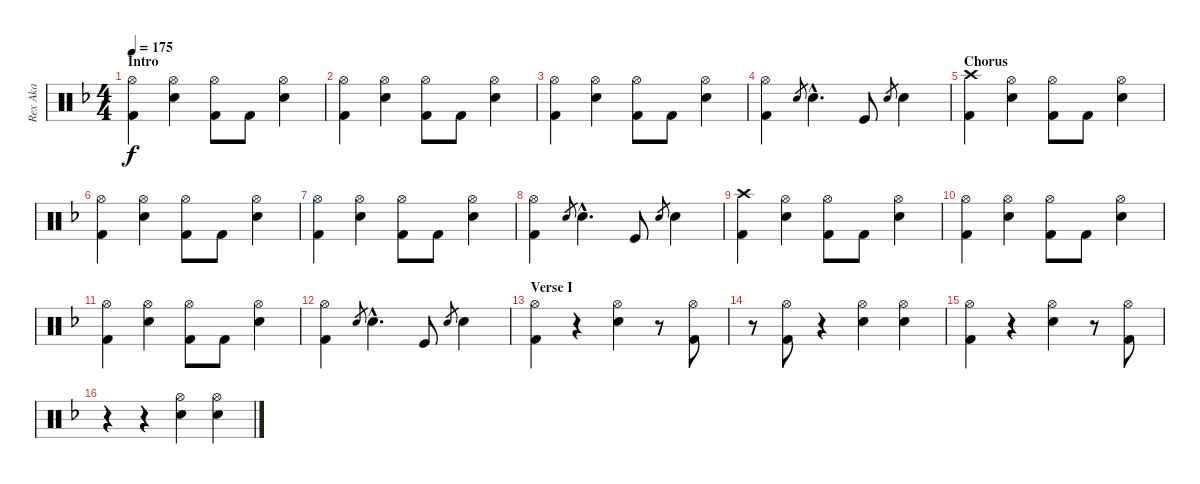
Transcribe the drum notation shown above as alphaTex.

\track ("Rex Aka" "Rex Aka") {instrument percussion}
\staff {score}
\articulation defaults
\ts (4 4)
\section ("" "Intro")
\tempo 175
\clef neutral
\ks f
("Hi-Hat (open)" "Kick (hit) 2").4{dy f} ("Hi-Hat (open)" "Electric Snare (hit)").4 ("Hi-Hat (open)" "Kick (hit) 2").8 "Kick (hit) 2".8 ("Hi-Hat (open)" "Electric Snare (hit)").4 |
("Hi-Hat (open)" "Kick (hit) 2").4 ("Hi-Hat (open)" "Electric Snare (hit)").4 ("Hi-Hat (open)" "Kick (hit) 2").8 "Kick (hit) 2".8 ("Hi-Hat (open)" "Electric Snare (hit)").4 |
("Hi-Hat (open)" "Kick (hit) 2").4 ("Hi-Hat (open)" "Electric Snare (hit)").4 ("Hi-Hat (open)" "Kick (hit) 2").8 "Kick (hit) 2".8 ("Hi-Hat (open)" "Electric Snare (hit)").4 |
("Hi-Hat (open)" "Kick (hit) 2").4 "Electric Snare (hit)".8{gr} "Electric Snare (hit)"{hac}.4{d} "Kick (hit)".8 "Electric Snare (hit)".8{gr} "Electric Snare (hit)".4 |
\section ("" "Chorus")
("Crash high (hit)" "Kick (hit) 2").4 ("Hi-Hat (open)" "Electric Snare (hit)").4 ("Hi-Hat (open)" "Kick (hit) 2").8 "Kick (hit) 2".8 ("Hi-Hat (open)" "Electric Snare (hit)").4 |
("Hi-Hat (open)" "Kick (hit) 2").4 ("Hi-Hat (open)" "Electric Snare (hit)").4 ("Hi-Hat (open)" "Kick (hit) 2").8 "Kick (hit) 2".8 ("Hi-Hat (open)" "Electric Snare (hit)").4 |
("Hi-Hat (open)" "Kick (hit) 2").4 ("Hi-Hat (open)" "Electric Snare (hit)").4 ("Hi-Hat (open)" "Kick (hit) 2").8 "Kick (hit) 2".8 ("Hi-Hat (open)" "Electric Snare (hit)").4 |
("Hi-Hat (open)" "Kick (hit) 2").4 "Electric Snare (hit)".8{gr} "Electric Snare (hit)"{hac}.4{d} "Kick (hit)".8 "Electric Snare (hit)".8{gr} "Electric Snare (hit)".4 |
("Crash high (hit)" "Kick (hit) 2").4 ("Hi-Hat (open)" "Electric Snare (hit)").4 ("Hi-Hat (open)" "Kick (hit) 2").8 "Kick (hit) 2".8 ("Hi-Hat (open)" "Electric Snare (hit)").4 |
("Hi-Hat (open)" "Kick (hit) 2").4 ("Hi-Hat (open)" "Electric Snare (hit)").4 ("Hi-Hat (open)" "Kick (hit) 2").8 "Kick (hit) 2".8 ("Hi-Hat (open)" "Electric Snare (hit)").4 |
("Hi-Hat (open)" "Kick (hit) 2").4 ("Hi-Hat (open)" "Electric Snare (hit)").4 ("Hi-Hat (open)" "Kick (hit) 2").8 "Kick (hit) 2".8 ("Hi-Hat (open)" "Electric Snare (hit)").4 |
("Hi-Hat (open)" "Kick (hit) 2").4 "Electric Snare (hit)".8{gr} "Electric Snare (hit)"{hac}.4{d} "Kick (hit)".8 "Electric Snare (hit)".8{gr} "Electric Snare (hit)".4 |
\section ("" "Verse I")
("Hi-Hat (open)" "Kick (hit) 2").4 r.4 ("Hi-Hat (open)" "Electric Snare (hit)").4 r.8 ("Hi-Hat (open)" "Kick (hit) 2").8 |
r.8 ("Hi-Hat (open)" "Kick (hit) 2").8 r.4 ("Hi-Hat (open)" "Electric Snare (hit)").4 ("Hi-Hat (open)" "Electric Snare (hit)").4 |
("Hi-Hat (open)" "Kick (hit) 2").4 r.4 ("Hi-Hat (open)" "Electric Snare (hit)").4 r.8 ("Hi-Hat (open)" "Kick (hit) 2").8 |
r.4 r.4 ("Hi-Hat (open)" "Electric Snare (hit)").4 ("Hi-Hat (open)" "Electric Snare (hit)").4
